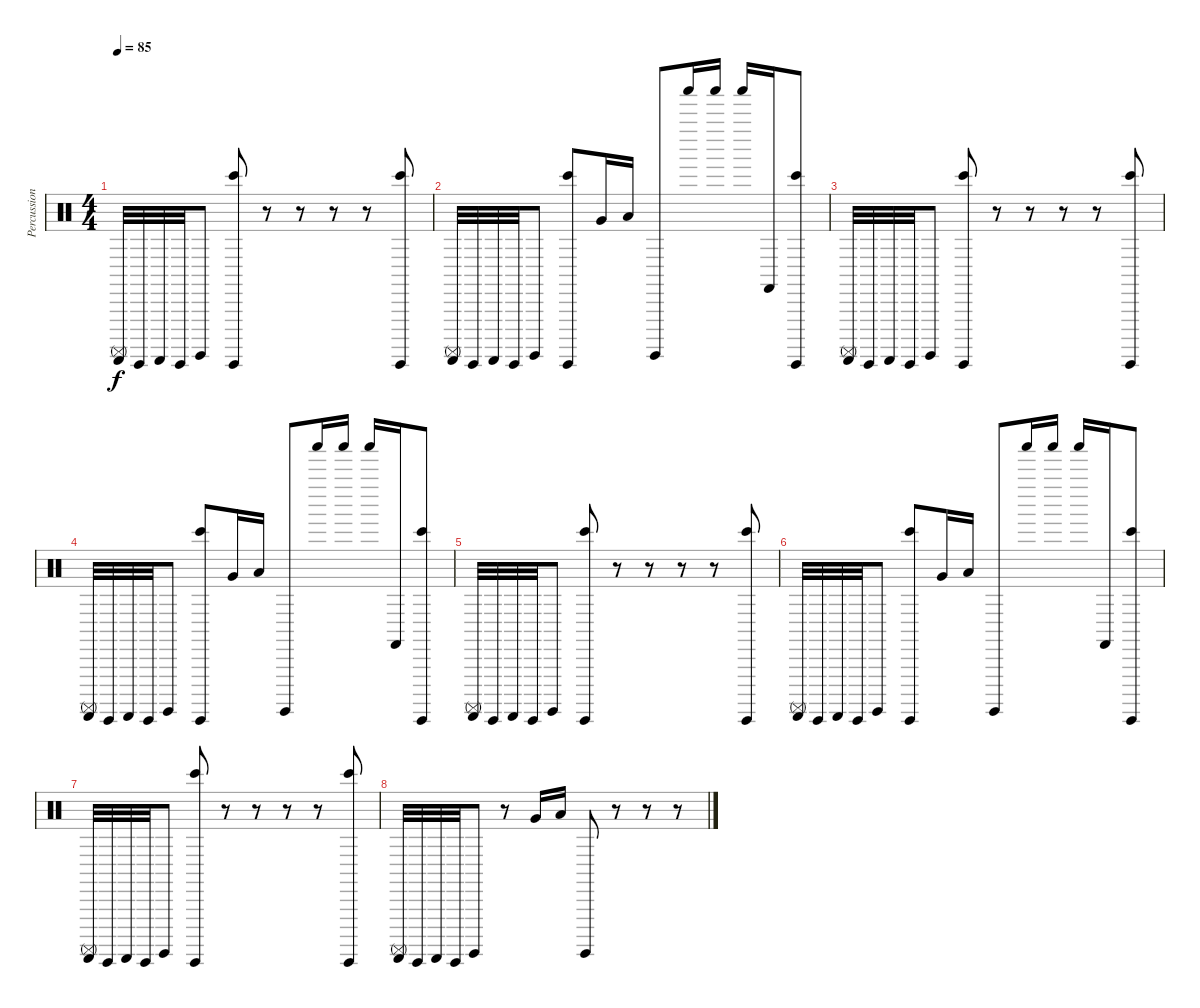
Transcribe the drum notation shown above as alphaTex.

\track ("Percussion" "Percussion") {instrument percussion}
\staff {score}
\articulation defaults
\ts (4 4)
\tempo 85
\clef neutral
\ks c
("Guiro (scrap-return)" "Surdo (mute)").32{dy f} "Guiro (hit)".32 "Guiro (scrap-return)".32 "Guiro (hit)".32 "Surdo (hit)".8 ("Bongo High (hit)" "Guiro (hit)").8 r.8 r.8 r.8 r.8 ("Bongo High (hit)" "Guiro (hit)").8 |
("Guiro (scrap-return)" "Surdo (mute)").32 "Guiro (hit)".32 "Guiro (scrap-return)".32 "Guiro (hit)".32 "Surdo (hit)".8 ("Bongo High (hit)" "Guiro (hit)").8 "Very Low Tom (hit)".16 "Low Floor Tom (hit)".16 "Surdo (hit)".8 "Shaker (hit)".16 "Shaker (hit)".16 "Shaker (hit)".16 "Castanets (hit)".16 ("Bongo High (hit)" "Guiro (hit)").8 |
("Guiro (scrap-return)" "Surdo (mute)").32 "Guiro (hit)".32 "Guiro (scrap-return)".32 "Guiro (hit)".32 "Surdo (hit)".8 ("Bongo High (hit)" "Guiro (hit)").8 r.8 r.8 r.8 r.8 ("Bongo High (hit)" "Guiro (hit)").8 |
("Guiro (scrap-return)" "Surdo (mute)").32 "Guiro (hit)".32 "Guiro (scrap-return)".32 "Guiro (hit)".32 "Surdo (hit)".8 ("Bongo High (hit)" "Guiro (hit)").8 "Very Low Tom (hit)".16 "Low Floor Tom (hit)".16 "Surdo (hit)".8 "Shaker (hit)".16 "Shaker (hit)".16 "Shaker (hit)".16 "Castanets (hit)".16 ("Bongo High (hit)" "Guiro (hit)").8 |
("Guiro (scrap-return)" "Surdo (mute)").32 "Guiro (hit)".32 "Guiro (scrap-return)".32 "Guiro (hit)".32 "Surdo (hit)".8 ("Bongo High (hit)" "Guiro (hit)").8 r.8 r.8 r.8 r.8 ("Bongo High (hit)" "Guiro (hit)").8 |
("Guiro (scrap-return)" "Surdo (mute)").32 "Guiro (hit)".32 "Guiro (scrap-return)".32 "Guiro (hit)".32 "Surdo (hit)".8 ("Bongo High (hit)" "Guiro (hit)").8 "Very Low Tom (hit)".16 "Low Floor Tom (hit)".16 "Surdo (hit)".8 "Shaker (hit)".16 "Shaker (hit)".16 "Shaker (hit)".16 "Castanets (hit)".16 ("Bongo High (hit)" "Guiro (hit)").8 |
("Guiro (scrap-return)" "Surdo (mute)").32 "Guiro (hit)".32 "Guiro (scrap-return)".32 "Guiro (hit)".32 "Surdo (hit)".8 ("Bongo High (hit)" "Guiro (hit)").8 r.8 r.8 r.8 r.8 ("Bongo High (hit)" "Guiro (hit)").8 |
("Guiro (scrap-return)" "Surdo (mute)").32 "Guiro (hit)".32 "Guiro (scrap-return)".32 "Guiro (hit)".32 "Surdo (hit)".8 r.8 "Very Low Tom (hit)".16 "Low Floor Tom (hit)".16 "Surdo (hit)".8 r.8 r.8 r.8
